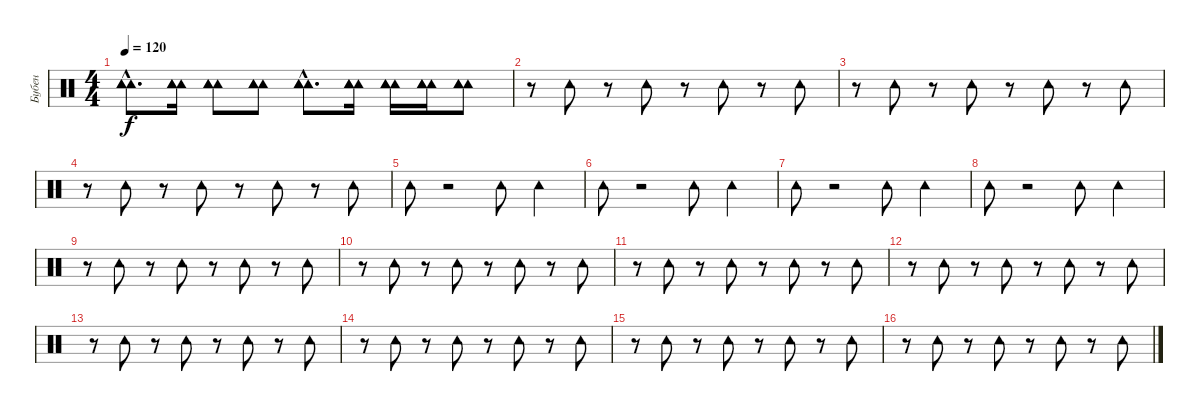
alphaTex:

\track ("Бубен" "Бубен") {instrument percussion}
\staff {score}
\articulation defaults
\ts (4 4)
\tempo 120
\clef neutral
\ks c
("Tambourine (hit)"{hac} "Tambourine (hit)"{hac} "Tambourine (hit)"{hac}).8{d dy f} ("Tambourine (hit)" "Tambourine (hit)" "Tambourine (hit)").16 ("Tambourine (hit)" "Tambourine (hit)" "Tambourine (hit)").8 ("Tambourine (hit)" "Tambourine (hit)" "Tambourine (hit)").8 ("Tambourine (hit)"{hac} "Tambourine (hit)"{hac} "Tambourine (hit)"{hac}).8{d} ("Tambourine (hit)" "Tambourine (hit)" "Tambourine (hit)").16 ("Tambourine (hit)" "Tambourine (hit)" "Tambourine (hit)").16 ("Tambourine (hit)" "Tambourine (hit)" "Tambourine (hit)").16 ("Tambourine (hit)" "Tambourine (hit)" "Tambourine (hit)").8 |
r.8 "Tambourine (hit)".8 r.8 "Tambourine (hit)".8 r.8 "Tambourine (hit)".8 r.8 "Tambourine (hit)".8 |
r.8 "Tambourine (hit)".8 r.8 "Tambourine (hit)".8 r.8 "Tambourine (hit)".8 r.8 "Tambourine (hit)".8 |
r.8 "Tambourine (hit)".8 r.8 "Tambourine (hit)".8 r.8 "Tambourine (hit)".8 r.8 "Tambourine (hit)".8 |
"Tambourine (hit)".8 r.2 "Tambourine (hit)".8 "Tambourine (hit)".4 |
"Tambourine (hit)".8 r.2 "Tambourine (hit)".8 "Tambourine (hit)".4 |
"Tambourine (hit)".8 r.2 "Tambourine (hit)".8 "Tambourine (hit)".4 |
"Tambourine (hit)".8 r.2 "Tambourine (hit)".8 "Tambourine (hit)".4 |
r.8 "Tambourine (hit)".8 r.8 "Tambourine (hit)".8 r.8 "Tambourine (hit)".8 r.8 "Tambourine (hit)".8 |
r.8 "Tambourine (hit)".8 r.8 "Tambourine (hit)".8 r.8 "Tambourine (hit)".8 r.8 "Tambourine (hit)".8 |
r.8 "Tambourine (hit)".8 r.8 "Tambourine (hit)".8 r.8 "Tambourine (hit)".8 r.8 "Tambourine (hit)".8 |
r.8 "Tambourine (hit)".8 r.8 "Tambourine (hit)".8 r.8 "Tambourine (hit)".8 r.8 "Tambourine (hit)".8 |
r.8 "Tambourine (hit)".8 r.8 "Tambourine (hit)".8 r.8 "Tambourine (hit)".8 r.8 "Tambourine (hit)".8 |
r.8 "Tambourine (hit)".8 r.8 "Tambourine (hit)".8 r.8 "Tambourine (hit)".8 r.8 "Tambourine (hit)".8 |
r.8 "Tambourine (hit)".8 r.8 "Tambourine (hit)".8 r.8 "Tambourine (hit)".8 r.8 "Tambourine (hit)".8 |
r.8 "Tambourine (hit)".8 r.8 "Tambourine (hit)".8 r.8 "Tambourine (hit)".8 r.8 "Tambourine (hit)".8
